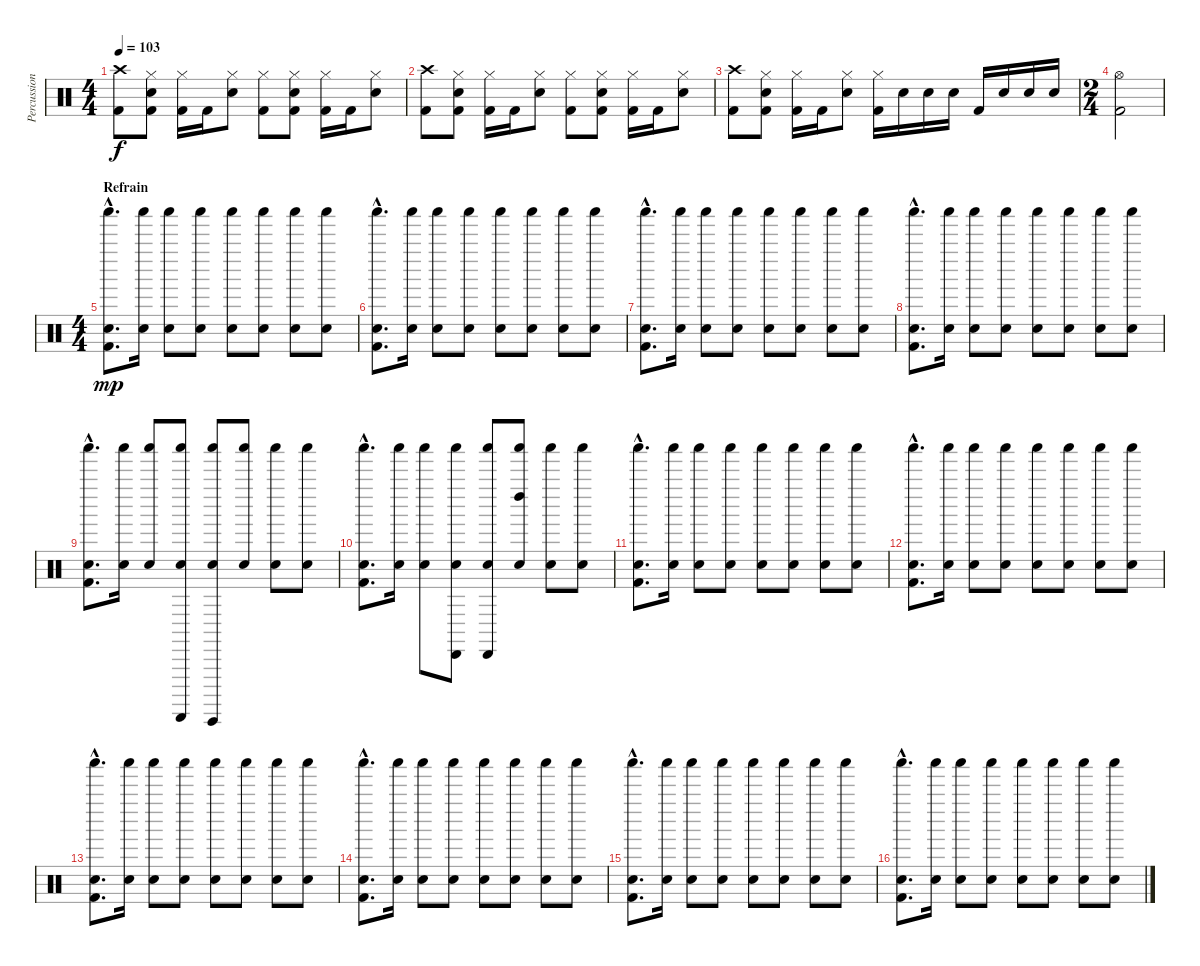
\track ("Percussion" "Percussion") {instrument percussion}
\staff {score}
\articulation defaults
\ts (4 4)
\tempo 103
\clef neutral
\ks c
("Crash high (hit)" "Kick (hit) 2").8{dy f} ("Hi-Hat (closed)" "Electric Snare (hit)" "Kick (hit) 2").8 ("Hi-Hat (closed)" "Kick (hit) 2").16 "Kick (hit) 2".16 ("Hi-Hat (closed)" "Electric Snare (hit)").8 ("Hi-Hat (closed)" "Kick (hit) 2").8 ("Hi-Hat (closed)" "Electric Snare (hit)" "Kick (hit) 2").8 ("Hi-Hat (closed)" "Kick (hit) 2").16 "Kick (hit) 2".16 ("Hi-Hat (closed)" "Electric Snare (hit)").8 |
("Crash high (hit)" "Kick (hit) 2").8 ("Hi-Hat (closed)" "Electric Snare (hit)" "Kick (hit) 2").8 ("Hi-Hat (closed)" "Kick (hit) 2").16 "Kick (hit) 2".16 ("Hi-Hat (closed)" "Electric Snare (hit)").8 ("Hi-Hat (closed)" "Kick (hit) 2").8 ("Hi-Hat (closed)" "Electric Snare (hit)" "Kick (hit) 2").8 ("Hi-Hat (closed)" "Kick (hit) 2").16 "Kick (hit) 2".16 ("Hi-Hat (closed)" "Electric Snare (hit)").8 |
("Crash high (hit)" "Kick (hit) 2").8 ("Hi-Hat (closed)" "Electric Snare (hit)" "Kick (hit) 2").8 ("Hi-Hat (closed)" "Kick (hit) 2").16 "Kick (hit) 2".16 ("Hi-Hat (closed)" "Electric Snare (hit)").8 ("Hi-Hat (closed)" "Kick (hit) 2").16 "Electric Snare (hit)".16 "Electric Snare (hit)".16 "Electric Snare (hit)".16 "Kick (hit) 2".16 "Electric Snare (hit)".16 "Electric Snare (hit)".16 "Electric Snare (hit)".16 |
\ts (2 4)
("Hi-Hat (open)" "Kick (hit) 2").2 |
\ts (4 4)
\section ("" "Refrain")
("Electric Snare (hit)"{hac} "Shaker (hit)"{hac} "Kick (hit) 2"{hac}).8{d dy mp} ("Electric Snare (hit)" "Shaker (hit)").16 ("Electric Snare (hit)" "Shaker (hit)").8 ("Electric Snare (hit)" "Shaker (hit)").8 ("Electric Snare (hit)" "Shaker (hit)").8 ("Electric Snare (hit)" "Shaker (hit)").8 ("Electric Snare (hit)" "Shaker (hit)").8 ("Electric Snare (hit)" "Shaker (hit)").8 |
("Electric Snare (hit)"{hac} "Shaker (hit)"{hac} "Kick (hit) 2"{hac}).8{d} ("Electric Snare (hit)" "Shaker (hit)").16 ("Electric Snare (hit)" "Shaker (hit)").8 ("Electric Snare (hit)" "Shaker (hit)").8 ("Electric Snare (hit)" "Shaker (hit)").8 ("Electric Snare (hit)" "Shaker (hit)").8 ("Electric Snare (hit)" "Shaker (hit)").8 ("Electric Snare (hit)" "Shaker (hit)").8 |
("Electric Snare (hit)"{hac} "Shaker (hit)"{hac} "Kick (hit) 2"{hac}).8{d} ("Electric Snare (hit)" "Shaker (hit)").16 ("Electric Snare (hit)" "Shaker (hit)").8 ("Electric Snare (hit)" "Shaker (hit)").8 ("Electric Snare (hit)" "Shaker (hit)").8 ("Electric Snare (hit)" "Shaker (hit)").8 ("Electric Snare (hit)" "Shaker (hit)").8 ("Electric Snare (hit)" "Shaker (hit)").8 |
("Electric Snare (hit)"{hac} "Shaker (hit)"{hac} "Kick (hit) 2"{hac}).8{d} ("Electric Snare (hit)" "Shaker (hit)").16 ("Electric Snare (hit)" "Shaker (hit)").8 ("Electric Snare (hit)" "Shaker (hit)").8 ("Electric Snare (hit)" "Shaker (hit)").8 ("Electric Snare (hit)" "Shaker (hit)").8 ("Electric Snare (hit)" "Shaker (hit)").8 ("Electric Snare (hit)" "Shaker (hit)").8 |
("Electric Snare (hit)"{hac} "Shaker (hit)"{hac} "Kick (hit) 2"{hac}).8{d} ("Electric Snare (hit)" "Shaker (hit)").16 ("Electric Snare (hit)" "Shaker (hit)").8 ("Guiro (scrap-return)" "Electric Snare (hit)" "Shaker (hit)").8 ("Guiro (hit)" "Electric Snare (hit)" "Shaker (hit)").8 ("Electric Snare (hit)" "Shaker (hit)").8 ("Electric Snare (hit)" "Shaker (hit)").8 ("Electric Snare (hit)" "Shaker (hit)").8 |
("Electric Snare (hit)"{hac} "Shaker (hit)"{hac} "Kick (hit) 2"{hac}).8{d} ("Electric Snare (hit)" "Shaker (hit)").16 ("Electric Snare (hit)" "Shaker (hit)").8 ("Cabasa (hit)" "Electric Snare (hit)" "Shaker (hit)").8 ("Cabasa (hit)" "Electric Snare (hit)" "Shaker (hit)").8 ("Left Maraca (hit)" "Electric Snare (hit)" "Shaker (hit)").8 ("Electric Snare (hit)" "Shaker (hit)").8 ("Electric Snare (hit)" "Shaker (hit)").8 |
("Electric Snare (hit)"{hac} "Shaker (hit)"{hac} "Kick (hit) 2"{hac}).8{d} ("Electric Snare (hit)" "Shaker (hit)").16 ("Electric Snare (hit)" "Shaker (hit)").8 ("Electric Snare (hit)" "Shaker (hit)").8 ("Electric Snare (hit)" "Shaker (hit)").8 ("Electric Snare (hit)" "Shaker (hit)").8 ("Electric Snare (hit)" "Shaker (hit)").8 ("Electric Snare (hit)" "Shaker (hit)").8 |
("Electric Snare (hit)"{hac} "Shaker (hit)"{hac} "Kick (hit) 2"{hac}).8{d} ("Electric Snare (hit)" "Shaker (hit)").16 ("Electric Snare (hit)" "Shaker (hit)").8 ("Electric Snare (hit)" "Shaker (hit)").8 ("Electric Snare (hit)" "Shaker (hit)").8 ("Electric Snare (hit)" "Shaker (hit)").8 ("Electric Snare (hit)" "Shaker (hit)").8 ("Electric Snare (hit)" "Shaker (hit)").8 |
("Electric Snare (hit)"{hac} "Shaker (hit)"{hac} "Kick (hit) 2"{hac}).8{d} ("Electric Snare (hit)" "Shaker (hit)").16 ("Electric Snare (hit)" "Shaker (hit)").8 ("Electric Snare (hit)" "Shaker (hit)").8 ("Electric Snare (hit)" "Shaker (hit)").8 ("Electric Snare (hit)" "Shaker (hit)").8 ("Electric Snare (hit)" "Shaker (hit)").8 ("Electric Snare (hit)" "Shaker (hit)").8 |
("Electric Snare (hit)"{hac} "Shaker (hit)"{hac} "Kick (hit) 2"{hac}).8{d} ("Electric Snare (hit)" "Shaker (hit)").16 ("Electric Snare (hit)" "Shaker (hit)").8 ("Electric Snare (hit)" "Shaker (hit)").8 ("Electric Snare (hit)" "Shaker (hit)").8 ("Electric Snare (hit)" "Shaker (hit)").8 ("Electric Snare (hit)" "Shaker (hit)").8 ("Electric Snare (hit)" "Shaker (hit)").8 |
("Electric Snare (hit)"{hac} "Shaker (hit)"{hac} "Kick (hit) 2"{hac}).8{d} ("Electric Snare (hit)" "Shaker (hit)").16 ("Electric Snare (hit)" "Shaker (hit)").8 ("Electric Snare (hit)" "Shaker (hit)").8 ("Electric Snare (hit)" "Shaker (hit)").8 ("Electric Snare (hit)" "Shaker (hit)").8 ("Electric Snare (hit)" "Shaker (hit)").8 ("Electric Snare (hit)" "Shaker (hit)").8 |
("Electric Snare (hit)"{hac} "Shaker (hit)"{hac} "Kick (hit) 2"{hac}).8{d} ("Electric Snare (hit)" "Shaker (hit)").16 ("Electric Snare (hit)" "Shaker (hit)").8 ("Electric Snare (hit)" "Shaker (hit)").8 ("Electric Snare (hit)" "Shaker (hit)").8 ("Electric Snare (hit)" "Shaker (hit)").8 ("Electric Snare (hit)" "Shaker (hit)").8 ("Electric Snare (hit)" "Shaker (hit)").8
